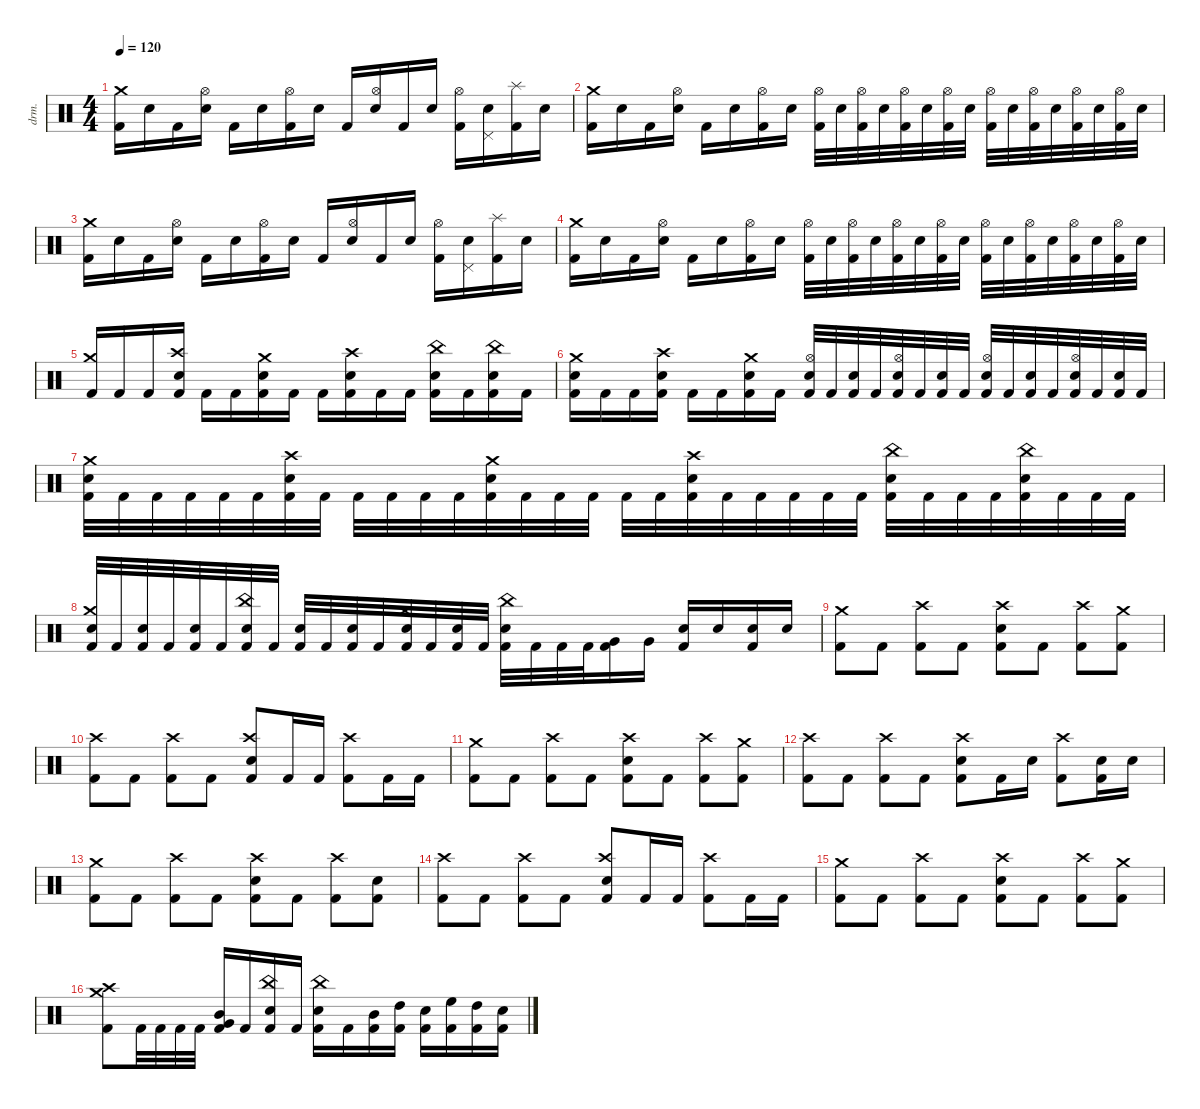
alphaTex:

\defaultSystemsLayout 4
\hideDynamics
\bracketExtendMode nobrackets
\otherSystemsTrackNameOrientation horizontal
\track ("Percussion" "drm.") {instrument percussion}
\staff {score}
\articulation defaults
\ts (4 4)
\beaming (8 2 2 2 2)
\tempo 120
\clef neutral
\ks c
("Kick (hit) 2" "Crash medium (hit)").16{dy fff beam Down} "Snare (hit) 2".16{beam Down} "Kick (hit) 2".16{beam Down} ("Snare (hit) 2" "Hi-Hat (open)").16{beam Down} "Kick (hit) 2".16{beam Down} "Snare (hit) 2".16{beam Down} ("Kick (hit) 2" "Hi-Hat (open)").16{beam Down} "Snare (hit) 2".16{beam Down} "Kick (hit) 2".16{beam Up} ("Snare (hit) 2" "Hi-Hat (open)").16{beam Up} "Kick (hit) 2".16{beam Up} "Snare (hit) 2".16{beam Up} ("Kick (hit) 2" "Hi-Hat (open)").16{beam Down} ("Pedal Hi-Hat (hit)" "Snare (hit) 2").16{beam Down} ("Kick (hit) 2" "Splash (hit)").16{beam Down} "Snare (hit) 2".16{beam Down} |
("Kick (hit) 2" "Crash medium (hit)").16{beam Down} "Snare (hit) 2".16{beam Down} "Kick (hit) 2".16{beam Down} ("Snare (hit) 2" "Hi-Hat (open)").16{beam Down} "Kick (hit) 2".16{beam Down} "Snare (hit) 2".16{beam Down} ("Kick (hit) 2" "Hi-Hat (open)").16{beam Down} "Snare (hit) 2".16{beam Down} ("Kick (hit) 2" "Hi-Hat (open)").32{beam Down} "Snare (hit) 2".32{beam Down} ("Kick (hit) 2" "Hi-Hat (open)").32{beam Down} "Snare (hit) 2".32{beam Down} ("Kick (hit) 2" "Hi-Hat (open)").32{beam Down} "Snare (hit) 2".32{beam Down} ("Kick (hit) 2" "Hi-Hat (open)").32{beam Down} "Snare (hit) 2".32{beam Down} ("Kick (hit) 2" "Hi-Hat (open)").32{beam Down} "Snare (hit) 2".32{beam Down} ("Kick (hit) 2" "Hi-Hat (open)").32{beam Down} "Snare (hit) 2".32{beam Down} ("Kick (hit) 2" "Hi-Hat (open)").32{beam Down} "Snare (hit) 2".32{beam Down} ("Kick (hit) 2" "Hi-Hat (open)").32{beam Down} "Snare (hit) 2".32{beam Down} |
("Kick (hit) 2" "Crash medium (hit)").16{beam Down} "Snare (hit) 2".16{beam Down} "Kick (hit) 2".16{beam Down} ("Snare (hit) 2" "Hi-Hat (open)").16{beam Down} "Kick (hit) 2".16{beam Down} "Snare (hit) 2".16{beam Down} ("Kick (hit) 2" "Hi-Hat (open)").16{beam Down} "Snare (hit) 2".16{beam Down} "Kick (hit) 2".16{beam Up} ("Snare (hit) 2" "Hi-Hat (open)").16{beam Up} "Kick (hit) 2".16{beam Up} "Snare (hit) 2".16{beam Up} ("Kick (hit) 2" "Hi-Hat (open)").16{beam Down} ("Pedal Hi-Hat (hit)" "Snare (hit) 2").16{beam Down} ("Kick (hit) 2" "Splash (hit)").16{beam Down} "Snare (hit) 2".16{beam Down} |
("Kick (hit) 2" "Crash medium (hit)").16{beam Down} "Snare (hit) 2".16{beam Down} "Kick (hit) 2".16{beam Down} ("Snare (hit) 2" "Hi-Hat (open)").16{beam Down} "Kick (hit) 2".16{beam Down} "Snare (hit) 2".16{beam Down} ("Kick (hit) 2" "Hi-Hat (open)").16{beam Down} "Snare (hit) 2".16{beam Down} ("Kick (hit) 2" "Hi-Hat (open)").32{beam Down} "Snare (hit) 2".32{beam Down} ("Kick (hit) 2" "Hi-Hat (open)").32{beam Down} "Snare (hit) 2".32{beam Down} ("Kick (hit) 2" "Hi-Hat (open)").32{beam Down} "Snare (hit) 2".32{beam Down} ("Kick (hit) 2" "Hi-Hat (open)").32{beam Down} "Snare (hit) 2".32{beam Down} ("Kick (hit) 2" "Hi-Hat (open)").32{beam Down} "Snare (hit) 2".32{beam Down} ("Kick (hit) 2" "Hi-Hat (open)").32{beam Down} "Snare (hit) 2".32{beam Down} ("Kick (hit) 2" "Hi-Hat (open)").32{beam Down} "Snare (hit) 2".32{beam Down} ("Kick (hit) 2" "Hi-Hat (open)").32{beam Down} "Snare (hit) 2".32{beam Down} |
("Kick (hit) 2" "Crash medium (hit)").16{beam Up} "Kick (hit) 2".16{beam Up} "Kick (hit) 2".16{beam Up} ("Kick (hit) 2" "Snare (hit) 2" "Crash high (hit)").16{beam Up} "Kick (hit) 2".16{beam Down} "Kick (hit) 2".16{beam Down} ("Kick (hit) 2" "Snare (hit) 2" "Crash medium (hit)").16{beam Down} "Kick (hit) 2".16{beam Down} "Kick (hit) 2".16{beam Down} ("Kick (hit) 2" "Snare (hit) 2" "Crash high (hit)").16{beam Down} "Kick (hit) 2".16{beam Down} "Kick (hit) 2".16{beam Down} ("Kick (hit) 2" "Snare (hit) 2" "China (hit)").16{beam Down} "Kick (hit) 2".16{beam Down} ("Kick (hit) 2" "Snare (hit) 2" "China (hit)").16{beam Down} "Kick (hit) 2".16{beam Down} |
("Kick (hit) 2" "Snare (hit) 2" "Crash medium (hit)").16{beam Down} "Kick (hit) 2".16{beam Down} "Kick (hit) 2".16{beam Down} ("Kick (hit) 2" "Snare (hit) 2" "Crash high (hit)").16{beam Down} "Kick (hit) 2".16{beam Down} "Kick (hit) 2".16{beam Down} ("Kick (hit) 2" "Snare (hit) 2" "Crash medium (hit)").16{beam Down} "Kick (hit) 2".16{beam Down} ("Kick (hit) 2" "Snare (hit) 2" "Hi-Hat (open)").32{beam Up} "Kick (hit) 2".32{beam Up} ("Kick (hit) 2" "Snare (hit) 2").32{beam Up} "Kick (hit) 2".32{beam Up} ("Kick (hit) 2" "Snare (hit) 2" "Hi-Hat (open)").32{beam Up} "Kick (hit) 2".32{beam Up} ("Kick (hit) 2" "Snare (hit) 2").32{beam Up} "Kick (hit) 2".32{beam Up} ("Kick (hit) 2" "Snare (hit) 2" "Hi-Hat (open)").32{beam Up} "Kick (hit) 2".32{beam Up} ("Kick (hit) 2" "Snare (hit) 2").32{beam Up} "Kick (hit) 2".32{beam Up} ("Kick (hit) 2" "Snare (hit) 2" "Hi-Hat (open)").32{beam Up} "Kick (hit) 2".32{beam Up} ("Kick (hit) 2" "Snare (hit) 2").32{beam Up} "Kick (hit) 2".32{beam Up} |
("Kick (hit) 2" "Snare (hit) 2" "Crash medium (hit)").32{beam Down} "Kick (hit) 2".32{beam Down} "Kick (hit) 2".32{beam Down} "Kick (hit) 2".32{beam Down} "Kick (hit) 2".32{beam Down} "Kick (hit) 2".32{beam Down} ("Kick (hit) 2" "Snare (hit) 2" "Crash high (hit)").32{beam Down} "Kick (hit) 2".32{beam Down} "Kick (hit) 2".32{beam Down} "Kick (hit) 2".32{beam Down} "Kick (hit) 2".32{beam Down} "Kick (hit) 2".32{beam Down} ("Kick (hit) 2" "Snare (hit) 2" "Crash medium (hit)").32{beam Down} "Kick (hit) 2".32{beam Down} "Kick (hit) 2".32{beam Down} "Kick (hit) 2".32{beam Down} "Kick (hit) 2".32{beam Down} "Kick (hit) 2".32{beam Down} ("Kick (hit) 2" "Snare (hit) 2" "Crash high (hit)").32{beam Down} "Kick (hit) 2".32{beam Down} "Kick (hit) 2".32{beam Down} "Kick (hit) 2".32{beam Down} "Kick (hit) 2".32{beam Down} "Kick (hit) 2".32{beam Down} ("Kick (hit) 2" "Snare (hit) 2" "China (hit)").32{beam Down} "Kick (hit) 2".32{beam Down} "Kick (hit) 2".32{beam Down} "Kick (hit) 2".32{beam Down} ("Kick (hit) 2" "Snare (hit) 2" "China (hit)").32{beam Down} "Kick (hit) 2".32{beam Down} "Kick (hit) 2".32{beam Down} "Kick (hit) 2".32{beam Down} |
("Kick (hit) 2" "Snare (hit) 2" "Crash medium (hit)").32{beam Up} "Kick (hit) 2".32{beam Up} ("Kick (hit) 2" "Snare (hit) 2").32{beam Up} "Kick (hit) 2".32{beam Up} ("Kick (hit) 2" "Snare (hit) 2").32{beam Up} "Kick (hit) 2".32{beam Up} ("Kick (hit) 2" "Snare (hit) 2" "China (hit)").32{beam Up} "Kick (hit) 2".32{beam Up} ("Kick (hit) 2" "Snare (hit) 2").32{beam Up} "Kick (hit) 2".32{beam Up} ("Kick (hit) 2" "Snare (hit) 2").32{beam Up} "Kick (hit) 2".32{beam Up} ("Kick (hit) 2" "Snare (hit) 2" "Crash medium (hit)").32{beam Up} "Kick (hit) 2".32{beam Up} ("Kick (hit) 2" "Snare (hit) 2").32{beam Up} "Kick (hit) 2".32{beam Up} ("Kick (hit) 2" "Snare (hit) 2" "China (hit)").32{beam Down} "Kick (hit) 2".32{beam Down} "Kick (hit) 2".32{beam Down} "Kick (hit) 2".32{beam Down} ("Kick (hit) 2" "Very Low Tom (hit)").16{beam Down} "Very Low Tom (hit)".16{beam Down} ("Kick (hit) 2" "Snare (hit) 2").16{beam Up} "Snare (hit) 2".16{dy f beam Up} ("Kick (hit) 2" "Snare (hit) 2").16{dy fff beam Up} "Snare (hit) 2".16{beam Up} |
("Kick (hit) 2" "Crash medium (hit)").8{beam Down} "Kick (hit) 2".8{beam Down} ("Kick (hit) 2" "Crash high (hit)").8{beam Down} "Kick (hit) 2".8{beam Down} ("Kick (hit) 2" "Snare (hit) 2" "Crash high (hit)").8{beam Down} "Kick (hit) 2".8{beam Down} ("Kick (hit) 2" "Crash high (hit)").8{beam Down} ("Kick (hit) 2" "Crash medium (hit)").8{beam Down} |
("Kick (hit) 2" "Crash high (hit)").8{beam Down} "Kick (hit) 2".8{beam Down} ("Kick (hit) 2" "Crash high (hit)").8{beam Down} "Kick (hit) 2".8{beam Down} ("Kick (hit) 2" "Snare (hit) 2" "Crash high (hit)").8{beam Up} "Kick (hit) 2".16{beam Up} "Kick (hit) 2".16{beam Up} ("Kick (hit) 2" "Crash high (hit)").8{beam Down} "Kick (hit) 2".16{beam Down} "Kick (hit) 2".16{beam Down} |
("Kick (hit) 2" "Crash medium (hit)").8{beam Down} "Kick (hit) 2".8{beam Down} ("Kick (hit) 2" "Crash high (hit)").8{beam Down} "Kick (hit) 2".8{beam Down} ("Kick (hit) 2" "Snare (hit) 2" "Crash high (hit)").8{beam Down} "Kick (hit) 2".8{beam Down} ("Kick (hit) 2" "Crash high (hit)").8{beam Down} ("Kick (hit) 2" "Crash medium (hit)").8{beam Down} |
("Kick (hit) 2" "Crash high (hit)").8{beam Down} "Kick (hit) 2".8{beam Down} ("Kick (hit) 2" "Crash high (hit)").8{beam Down} "Kick (hit) 2".8{beam Down} ("Kick (hit) 2" "Snare (hit) 2" "Crash high (hit)").8{beam Down} "Kick (hit) 2".16{beam Down} "Snare (hit) 2".16{beam Down} ("Kick (hit) 2" "Crash high (hit)").8{beam Down} ("Kick (hit) 2" "Snare (hit) 2").16{beam Down} "Snare (hit) 2".16{beam Down} |
("Kick (hit) 2" "Crash medium (hit)").8{beam Down} "Kick (hit) 2".8{beam Down} ("Kick (hit) 2" "Crash high (hit)").8{beam Down} "Kick (hit) 2".8{beam Down} ("Kick (hit) 2" "Snare (hit) 2" "Crash high (hit)").8{beam Down} "Kick (hit) 2".8{beam Down} ("Kick (hit) 2" "Crash high (hit)").8{beam Down} ("Kick (hit) 2" "Snare (hit) 2").8{beam Down} |
("Kick (hit) 2" "Crash high (hit)").8{beam Down} "Kick (hit) 2".8{beam Down} ("Kick (hit) 2" "Crash high (hit)").8{beam Down} "Kick (hit) 2".8{beam Down} ("Kick (hit) 2" "Snare (hit) 2" "Crash high (hit)").8{beam Up} "Kick (hit) 2".16{beam Up} "Kick (hit) 2".16{beam Up} ("Kick (hit) 2" "Crash high (hit)").8{beam Down} "Kick (hit) 2".16{beam Down} "Kick (hit) 2".16{beam Down} |
("Kick (hit) 2" "Crash medium (hit)").8{beam Down} "Kick (hit) 2".8{beam Down} ("Kick (hit) 2" "Crash high (hit)").8{beam Down} "Kick (hit) 2".8{beam Down} ("Kick (hit) 2" "Snare (hit) 2" "Crash high (hit)").8{beam Down} "Kick (hit) 2".8{beam Down} ("Kick (hit) 2" "Crash high (hit)").8{beam Down} ("Kick (hit) 2" "Crash medium (hit)").8{beam Down} |
("Kick (hit) 2" "Crash high (hit)" "Crash medium (hit)").8{beam Down} "Kick (hit) 2".32{beam Down} "Kick (hit) 2".32{beam Down} "Kick (hit) 2".32{beam Down} "Kick (hit) 2".32{beam Down} ("Kick (hit) 2" "Very Low Tom (hit)" "Mid Tom (hit)").16{beam Up} "Kick (hit) 2".16{beam Up} ("Kick (hit) 2" "Snare (hit) 2" "China (hit)").16{beam Up} "Kick (hit) 2".16{beam Up} ("Kick (hit) 2" "Snare (hit) 2" "China (hit)").16{beam Down} "Kick (hit) 2".16{beam Down} ("Kick (hit) 2" "Mid Tom (hit)").16{beam Down} ("Kick (hit) 2" "High Tom (hit)").16{beam Down} ("Kick (hit) 2" "Snare (hit) 2").16{beam Down} ("Kick (hit) 2" "High Floor Tom (hit)").16{beam Down} ("Kick (hit) 2" "High Tom (hit)").16{beam Down} ("Kick (hit) 2" "Snare (hit) 2").16{beam Down}
